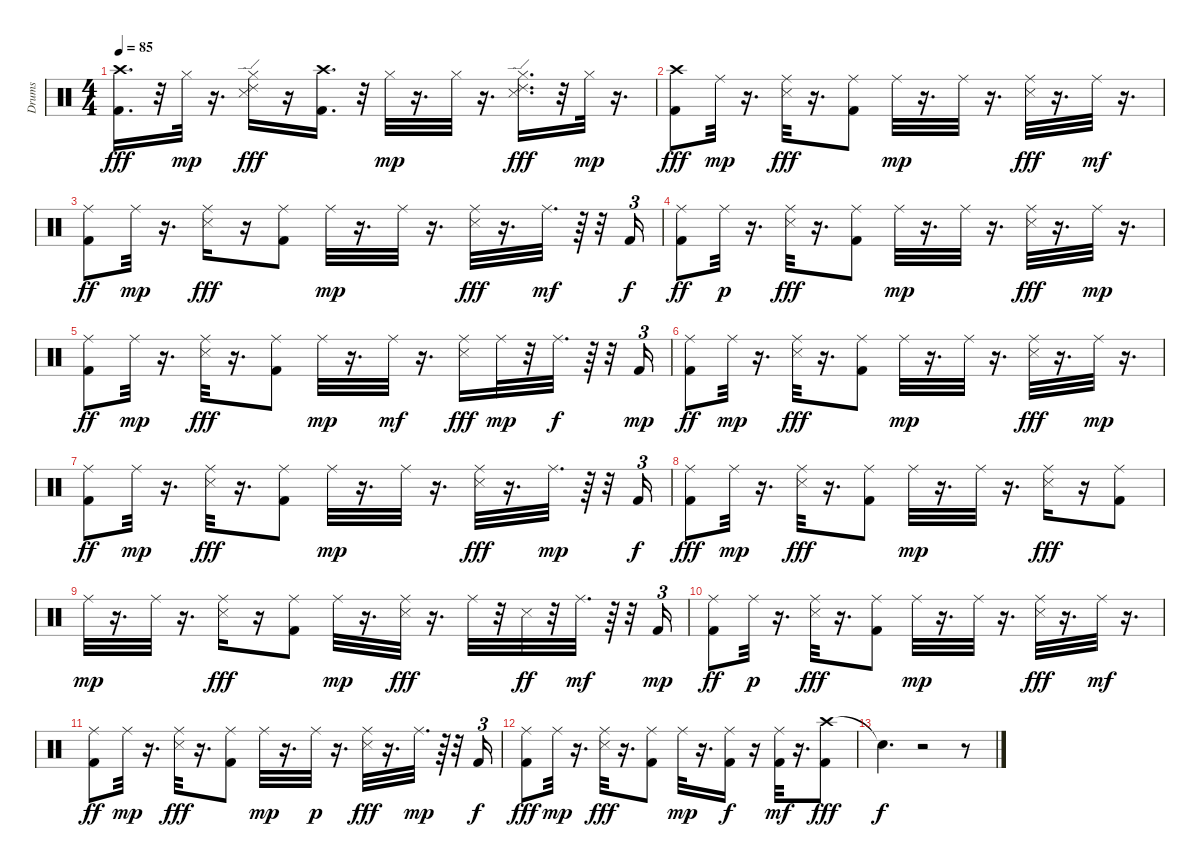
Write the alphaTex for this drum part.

\track ("Drums" "Drums") {instrument percussion}
\staff {score}
\articulation defaults
\ts (4 4)
\tempo 85
\clef neutral
\ks c
("Crash high (hit)" "Kick (hit) 2").16{d dy fff} r.32 "Hi-Hat (closed)".32{dy mp} r.16{d} ("Ride (edge) 2" "Hi-Hat (closed)" "Snare (side stick) 3").16{dy fff} r.16 ("Crash high (hit)" "Kick (hit) 2").16{d} r.32 "Hi-Hat (closed)".32{dy mp} r.16{d} "Hi-Hat (closed)".32 r.16{d} ("Ride (edge) 2" "Hi-Hat (closed)" "Snare (side stick) 3").16{d dy fff} r.32 "Hi-Hat (closed)".32{dy mp} r.16{d} |
("Crash high (hit)" "Kick (hit) 2").8{dy fff} "Ride (middle)".32{dy mp} r.16{d} ("Ride (middle)" "Snare (side stick) 3").32{dy fff} r.16{d} ("Ride (middle)" "Kick (hit) 2").8 "Ride (middle)".32{dy mp} r.16{d} "Ride (middle)".32 r.16{d} ("Ride (middle)" "Snare (side stick) 3").32{dy fff} r.16{d} "Ride (middle)".32{dy mf} r.16{d} |
("Ride (middle)" "Kick (hit) 2").8{dy ff} "Ride (middle)".32{dy mp} r.16{d} ("Ride (middle)" "Snare (side stick) 3").16{dy fff} r.16 ("Ride (middle)" "Kick (hit) 2").8 "Ride (middle)".32{dy mp} r.16{d} "Ride (middle)".32 r.16{d} ("Ride (middle)" "Snare (side stick) 3").32{dy fff} r.16{d} "Ride (middle)".32{d dy mf} r.64 r.32 "Kick (hit) 2".16{tu (3 2) dy f} |
("Ride (middle)" "Kick (hit) 2").8{dy ff} "Ride (middle)".32{dy p} r.16{d} ("Ride (middle)" "Snare (side stick) 3").32{dy fff} r.16{d} ("Ride (middle)" "Kick (hit) 2").8 "Ride (middle)".32{dy mp} r.16{d} "Ride (middle)".32 r.16{d} ("Ride (middle)" "Snare (side stick) 3").32{dy fff} r.16{d} "Ride (middle)".32{dy mp} r.16{d} |
("Ride (middle)" "Kick (hit) 2").8{dy ff} "Ride (middle)".32{dy mp} r.16{d} ("Ride (middle)" "Snare (side stick) 3").32{dy fff} r.16{d} ("Ride (middle)" "Kick (hit) 2").8 "Ride (middle)".32{dy mp} r.16{d} "Ride (middle)".32{dy mf} r.16{d} ("Ride (middle)" "Snare (side stick) 3").16{dy fff} "Ride (middle)".32{dy mp} r.32 "Ride (middle)".32{d dy f} r.64 r.32 "Kick (hit) 2".16{tu (3 2) dy mp} |
("Ride (middle)" "Kick (hit) 2").8{dy ff} "Ride (middle)".32{dy mp} r.16{d} ("Ride (middle)" "Snare (side stick) 3").32{dy fff} r.16{d} ("Ride (middle)" "Kick (hit) 2").8 "Ride (middle)".32{dy mp} r.16{d} "Ride (middle)".32 r.16{d} ("Ride (middle)" "Snare (side stick) 3").32{dy fff} r.16{d} "Ride (middle)".32{dy mp} r.16{d} |
("Ride (middle)" "Kick (hit) 2").8{dy ff} "Ride (middle)".32{dy mp} r.16{d} ("Ride (middle)" "Snare (side stick) 3").32{dy fff} r.16{d} ("Ride (middle)" "Kick (hit) 2").8 "Ride (middle)".32{dy mp} r.16{d} "Ride (middle)".32 r.16{d} ("Ride (middle)" "Snare (side stick) 3").32{dy fff} r.16{d} "Ride (middle)".32{d dy mp} r.64 r.32 "Kick (hit) 2".16{tu (3 2) dy f} |
("Ride (middle)" "Kick (hit) 2").8{dy fff} "Ride (middle)".32{dy mp} r.16{d} ("Ride (middle)" "Snare (side stick) 3").32{dy fff} r.16{d} ("Ride (middle)" "Kick (hit) 2").8 "Ride (middle)".32{dy mp} r.16{d} "Ride (middle)".32 r.16{d} ("Ride (middle)" "Snare (side stick) 3").16{dy fff} r.16 ("Ride (middle)" "Kick (hit) 2").8 |
"Ride (middle)".32{dy mp} r.16{d} "Ride (middle)".32 r.16{d} ("Ride (middle)" "Snare (side stick) 3").16{dy fff} r.16 ("Ride (middle)" "Kick (hit) 2").8 "Ride (middle)".32{dy mp} r.16{d} ("Ride (middle)" "Snare (side stick) 3").32{dy fff} r.16{d} "Ride (middle)".32 r.32 "Snare (side stick) 3".32{dy ff} r.32 "Ride (middle)".32{d dy mf} r.64 r.32 "Kick (hit) 2".16{tu (3 2) dy mp} |
("Ride (middle)" "Kick (hit) 2").8{dy ff} "Ride (middle)".32{dy p} r.16{d} ("Ride (middle)" "Snare (side stick) 3").32{dy fff} r.16{d} ("Ride (middle)" "Kick (hit) 2").8 "Ride (middle)".32{dy mp} r.16{d} "Ride (middle)".32 r.16{d} ("Ride (middle)" "Snare (side stick) 3").32{dy fff} r.16{d} "Ride (middle)".32{dy mf} r.16{d} |
("Ride (middle)" "Kick (hit) 2").8{dy ff} "Ride (middle)".32{dy mp} r.16{d} ("Ride (middle)" "Snare (side stick) 3").32{dy fff} r.16{d} ("Ride (middle)" "Kick (hit) 2").8 "Ride (middle)".32{dy mp} r.16{d} "Ride (middle)".32{dy p} r.16{d} ("Ride (middle)" "Snare (side stick) 3").32{dy fff} r.16{d} "Ride (middle)".32{d dy mp} r.64 r.32 "Kick (hit) 2".16{tu (3 2) dy f} |
("Ride (middle)" "Kick (hit) 2").8{dy fff} "Ride (middle)".32{dy mp} r.16{d} ("Ride (middle)" "Snare (side stick) 3").32{dy fff} r.16{d} ("Ride (middle)" "Kick (hit) 2").8 "Ride (middle)".32{dy mp} r.16{d} ("Ride (middle)" "Kick (hit) 2").16{dy f} r.16 ("Ride (middle)" "Kick (hit) 2").32{dy mf} r.16{d} ("Crash high (hit)" "Kick (hit) 2").8{dy fff} |
"Snare (hit)"{t}.4{d dy f} r.2 r.8
